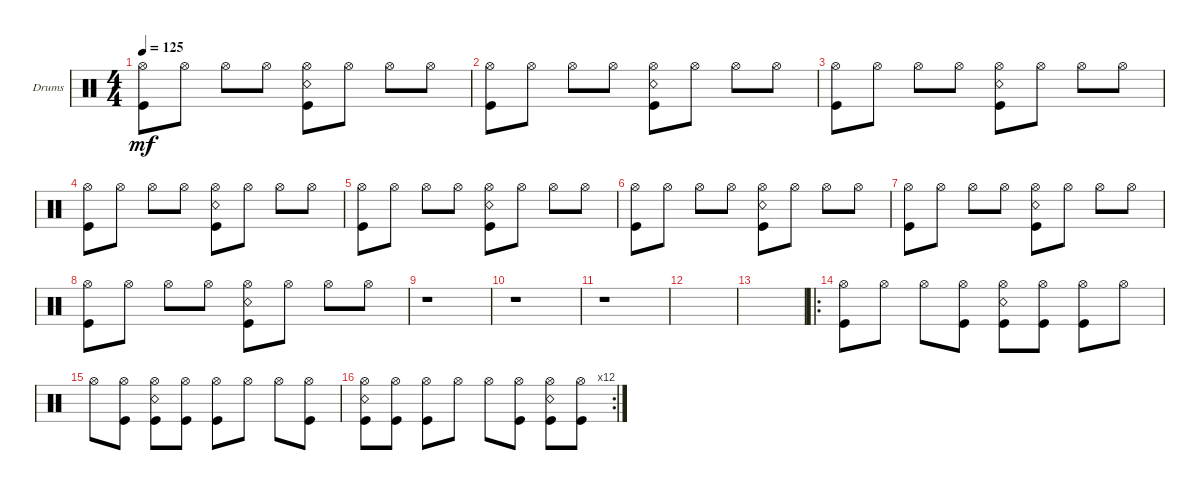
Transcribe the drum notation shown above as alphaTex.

\bracketExtendMode groupsimilarinstruments
\firstSystemTrackNameOrientation horizontal
\otherSystemsTrackNameOrientation horizontal
\track ("Drums" "Drums") {instrument percussion}
\staff {score}
\articulation defaults
\ts (4 4)
\tempo 125
\clef neutral
\ks c
("Hi-Hat (open)" "Kick (hit)").8{dy mf} "Hi-Hat (open)".8 "Hi-Hat (open)".8 "Hi-Hat (open)".8 ("Hi-Hat (open)" "Snare (rim shot)" "Kick (hit)").8 "Hi-Hat (open)".8 "Hi-Hat (open)".8 "Hi-Hat (open)".8 |
("Hi-Hat (open)" "Kick (hit)").8 "Hi-Hat (open)".8 "Hi-Hat (open)".8 "Hi-Hat (open)".8 ("Hi-Hat (open)" "Snare (rim shot)" "Kick (hit)").8 "Hi-Hat (open)".8 "Hi-Hat (open)".8 "Hi-Hat (open)".8 |
("Hi-Hat (open)" "Kick (hit)").8 "Hi-Hat (open)".8 "Hi-Hat (open)".8 "Hi-Hat (open)".8 ("Hi-Hat (open)" "Snare (rim shot)" "Kick (hit)").8 "Hi-Hat (open)".8 "Hi-Hat (open)".8 "Hi-Hat (open)".8 |
("Hi-Hat (open)" "Kick (hit)").8 "Hi-Hat (open)".8 "Hi-Hat (open)".8 "Hi-Hat (open)".8 ("Hi-Hat (open)" "Snare (rim shot)" "Kick (hit)").8 "Hi-Hat (open)".8 "Hi-Hat (open)".8 "Hi-Hat (open)".8 |
("Hi-Hat (open)" "Kick (hit)").8 "Hi-Hat (open)".8 "Hi-Hat (open)".8 "Hi-Hat (open)".8 ("Hi-Hat (open)" "Snare (rim shot)" "Kick (hit)").8 "Hi-Hat (open)".8 "Hi-Hat (open)".8 "Hi-Hat (open)".8 |
("Hi-Hat (open)" "Kick (hit)").8 "Hi-Hat (open)".8 "Hi-Hat (open)".8 "Hi-Hat (open)".8 ("Hi-Hat (open)" "Snare (rim shot)" "Kick (hit)").8 "Hi-Hat (open)".8 "Hi-Hat (open)".8 "Hi-Hat (open)".8 |
("Hi-Hat (open)" "Kick (hit)").8 "Hi-Hat (open)".8 "Hi-Hat (open)".8 "Hi-Hat (open)".8 ("Hi-Hat (open)" "Snare (rim shot)" "Kick (hit)").8 "Hi-Hat (open)".8 "Hi-Hat (open)".8 "Hi-Hat (open)".8 |
("Hi-Hat (open)" "Kick (hit)").8 "Hi-Hat (open)".8 "Hi-Hat (open)".8 "Hi-Hat (open)".8 ("Hi-Hat (open)" "Snare (rim shot)" "Kick (hit)").8 "Hi-Hat (open)".8 "Hi-Hat (open)".8 "Hi-Hat (open)".8 |
r.1 |
r.1 |
r.1 |
|
|
\ro
("Hi-Hat (open)" "Kick (hit)").8 "Hi-Hat (open)".8 "Hi-Hat (open)".8 ("Hi-Hat (open)" "Kick (hit)").8 ("Hi-Hat (open)" "Kick (hit)" "Snare (rim shot)").8 ("Hi-Hat (open)" "Kick (hit)").8 ("Hi-Hat (open)" "Kick (hit)").8 "Hi-Hat (open)".8 |
"Hi-Hat (open)".8 ("Hi-Hat (open)" "Kick (hit)").8 ("Hi-Hat (open)" "Kick (hit)" "Snare (rim shot)").8 ("Hi-Hat (open)" "Kick (hit)").8 ("Hi-Hat (open)" "Kick (hit)").8 "Hi-Hat (open)".8 "Hi-Hat (open)".8 ("Hi-Hat (open)" "Kick (hit)").8 |
\rc 12
("Hi-Hat (open)" "Kick (hit)" "Snare (rim shot)").8 ("Hi-Hat (open)" "Kick (hit)").8 ("Hi-Hat (open)" "Kick (hit)").8 "Hi-Hat (open)".8 "Hi-Hat (open)".8 ("Hi-Hat (open)" "Kick (hit)").8 ("Hi-Hat (open)" "Kick (hit)" "Snare (rim shot)").8 ("Hi-Hat (open)" "Kick (hit)").8
